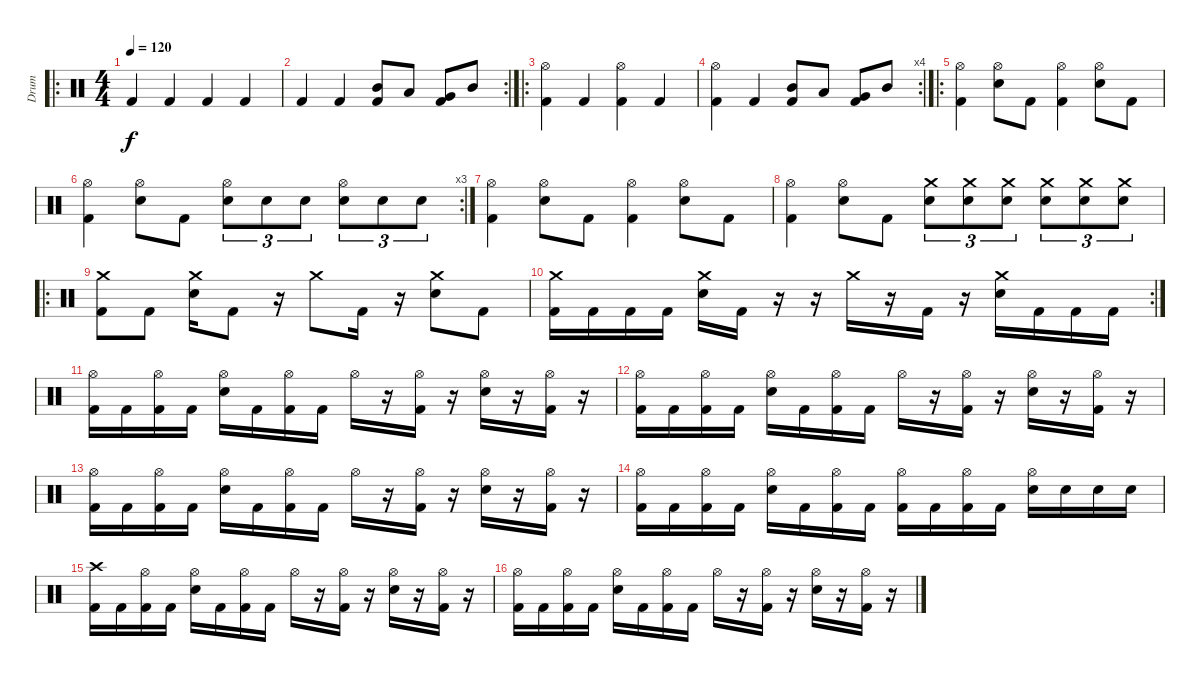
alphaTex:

\track ("Drum" "Drum") {instrument percussion}
\staff {score}
\articulation defaults
\ro
\ts (4 4)
\tempo 120
\clef neutral
\ks c "Kick (hit) 2".4{dy f} "Kick (hit) 2".4 "Kick (hit) 2".4 "Kick (hit) 2".4
|
\rc 2 "Kick (hit) 2".4 "Kick (hit) 2".4
("Mid Tom (hit)" "Kick (hit) 2").8 "Low Tom (hit)".8 ("Very Low Tom (hit)" "Kick (hit) 2").8 "Mid Tom (hit)".8 |
\ro
("Hi-Hat (open)" "Kick (hit) 2").4 "Kick (hit) 2".4 ("Hi-Hat (open)" "Kick (hit) 2").4 "Kick (hit) 2".4 |
\rc 4
("Hi-Hat (open)" "Kick (hit) 2").4 "Kick (hit) 2".4 ("Mid Tom (hit)" "Kick (hit) 2").8 "Low Tom (hit)".8 ("Very Low Tom (hit)" "Kick (hit) 2").8 "Mid Tom (hit)".8 |
\ro
("Hi-Hat (open)" "Kick (hit) 2").4 ("Hi-Hat (open)" "Electric Snare (hit)").8 "Kick (hit) 2".8 ("Hi-Hat (open)" "Kick (hit) 2").4 ("Hi-Hat (open)" "Electric Snare (hit)").8 "Kick (hit) 2".8 |
\rc 3
("Hi-Hat (open)" "Kick (hit) 2").4 ("Hi-Hat (open)" "Electric Snare (hit)").8 "Kick (hit) 2".8 ("Hi-Hat (open)" "Electric Snare (hit)").8{tu (3 2)} "Electric Snare (hit)".8{tu (3 2)} "Electric Snare (hit)".8{tu (3 2)} ("Hi-Hat (open)" "Electric Snare (hit)").8{tu (3 2)} "Electric Snare (hit)".8{tu (3 2)} "Electric Snare (hit)".8{tu (3 2)} |
("Hi-Hat (open)" "Kick (hit) 2").4 ("Hi-Hat (open)" "Electric Snare (hit)").8 "Kick (hit) 2".8 ("Hi-Hat (open)" "Kick (hit) 2").4 ("Hi-Hat (open)" "Electric Snare (hit)").8 "Kick (hit) 2".8 |
("Hi-Hat (open)" "Kick (hit) 2").4 ("Hi-Hat (open)" "Electric Snare (hit)").8 "Kick (hit) 2".8 ("Crash medium (hit)" "Electric Snare (hit)").8{tu (3 2)} ("Crash medium (hit)" "Electric Snare (hit)").8{tu (3 2)} ("Crash medium (hit)" "Electric Snare (hit)").8{tu (3 2)} ("Crash medium (hit)" "Electric Snare (hit)").8{tu (3 2)} ("Crash medium (hit)" "Electric Snare (hit)").8{tu (3 2)} ("Crash medium (hit)" "Electric Snare (hit)").8{tu (3 2)} |
\ro
("Crash medium (hit)" "Kick (hit) 2").8 "Kick (hit) 2".8 ("Crash medium (hit)" "Electric Snare (hit)").16 "Kick (hit) 2".8 r.16 "Crash medium (hit)".8 "Kick (hit) 2".16 r.16 ("Crash medium (hit)" "Electric Snare (hit)").8 "Kick (hit) 2".8 |
\rc 2
("Crash medium (hit)" "Kick (hit) 2").16 "Kick (hit) 2".16 "Kick (hit) 2".16 "Kick (hit) 2".16 ("Crash medium (hit)" "Electric Snare (hit)").16 "Kick (hit) 2".16 r.16 r.16 "Crash medium (hit)".16 r.16 "Kick (hit) 2".16 r.16 ("Crash medium (hit)" "Electric Snare (hit)").16 "Kick (hit) 2".16 "Kick (hit) 2".16 "Kick (hit) 2".16 |
("Hi-Hat (open)" "Kick (hit) 2").16 "Kick (hit) 2".16 ("Hi-Hat (open)" "Kick (hit) 2").16 "Kick (hit) 2".16 ("Hi-Hat (open)" "Electric Snare (hit)").16 "Kick (hit) 2".16 ("Hi-Hat (open)" "Kick (hit) 2").16 "Kick (hit) 2".16 "Hi-Hat (open)".16 r.16 ("Hi-Hat (open)" "Kick (hit) 2").16 r.16 ("Hi-Hat (open)" "Electric Snare (hit)").16 r.16 ("Hi-Hat (open)" "Kick (hit) 2").16 r.16 |
("Hi-Hat (open)" "Kick (hit) 2").16 "Kick (hit) 2".16 ("Hi-Hat (open)" "Kick (hit) 2").16 "Kick (hit) 2".16 ("Hi-Hat (open)" "Electric Snare (hit)").16 "Kick (hit) 2".16 ("Hi-Hat (open)" "Kick (hit) 2").16 "Kick (hit) 2".16 "Hi-Hat (open)".16 r.16 ("Hi-Hat (open)" "Kick (hit) 2").16 r.16 ("Hi-Hat (open)" "Electric Snare (hit)").16 r.16 ("Hi-Hat (open)" "Kick (hit) 2").16 r.16 |
("Hi-Hat (open)" "Kick (hit) 2").16 "Kick (hit) 2".16 ("Hi-Hat (open)" "Kick (hit) 2").16 "Kick (hit) 2".16 ("Hi-Hat (open)" "Electric Snare (hit)").16 "Kick (hit) 2".16 ("Hi-Hat (open)" "Kick (hit) 2").16 "Kick (hit) 2".16 "Hi-Hat (open)".16 r.16 ("Hi-Hat (open)" "Kick (hit) 2").16 r.16 ("Hi-Hat (open)" "Electric Snare (hit)").16 r.16 ("Hi-Hat (open)" "Kick (hit) 2").16 r.16 |
("Hi-Hat (open)" "Kick (hit) 2").16 "Kick (hit) 2".16 ("Hi-Hat (open)" "Kick (hit) 2").16 "Kick (hit) 2".16 ("Hi-Hat (open)" "Electric Snare (hit)").16 "Kick (hit) 2".16 ("Hi-Hat (open)" "Kick (hit) 2").16 "Kick (hit) 2".16 ("Hi-Hat (open)" "Kick (hit) 2").16 "Kick (hit) 2".16 ("Hi-Hat (open)" "Kick (hit) 2").16 "Kick (hit) 2".16 ("Hi-Hat (open)" "Electric Snare (hit)").16 "Electric Snare (hit)".16 "Electric Snare (hit)".16 "Electric Snare (hit)".16 |
("Crash high (hit)" "Kick (hit) 2").16 "Kick (hit) 2".16 ("Hi-Hat (open)" "Kick (hit) 2").16 "Kick (hit) 2".16 ("Hi-Hat (open)" "Electric Snare (hit)").16 "Kick (hit) 2".16 ("Hi-Hat (open)" "Kick (hit) 2").16 "Kick (hit) 2".16 "Hi-Hat (open)".16 r.16 ("Hi-Hat (open)" "Kick (hit) 2").16 r.16 ("Hi-Hat (open)" "Electric Snare (hit)").16 r.16 ("Hi-Hat (open)" "Kick (hit) 2").16 r.16 |
("Hi-Hat (open)" "Kick (hit) 2").16 "Kick (hit) 2".16 ("Hi-Hat (open)" "Kick (hit) 2").16 "Kick (hit) 2".16 ("Hi-Hat (open)" "Electric Snare (hit)").16 "Kick (hit) 2".16 ("Hi-Hat (open)" "Kick (hit) 2").16 "Kick (hit) 2".16 "Hi-Hat (open)".16 r.16 ("Hi-Hat (open)" "Kick (hit) 2").16 r.16 ("Hi-Hat (open)" "Electric Snare (hit)").16 r.16 ("Hi-Hat (open)" "Kick (hit) 2").16 r.16
